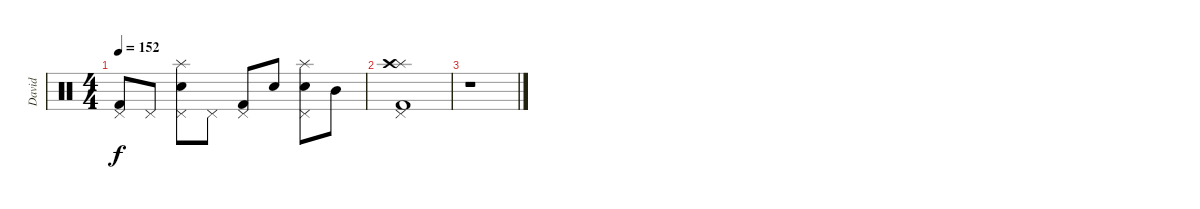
\track ("David" "David") {instrument percussion}
\staff {score}
\articulation defaults
\ts (4 4)
\tempo 152
\clef neutral
\ks c
("Kick (hit) 2" "Pedal Hi-Hat (hit)").8{dy f} "Pedal Hi-Hat (hit)".8 ("Snare (hit) 2" "Pedal Hi-Hat (hit)" "Splash (hit)").8 "Pedal Hi-Hat (hit)".8 ("Kick (hit) 2" "Pedal Hi-Hat (hit)").8 "Snare (hit) 2".8 ("Snare (hit) 2" "Pedal Hi-Hat (hit)" "Splash (hit)").8 "Mid Tom (hit)".8 |
("Kick (hit) 2" "Pedal Hi-Hat (hit)" "Splash (hit)" "Crash high (hit)").1 |
r.1
